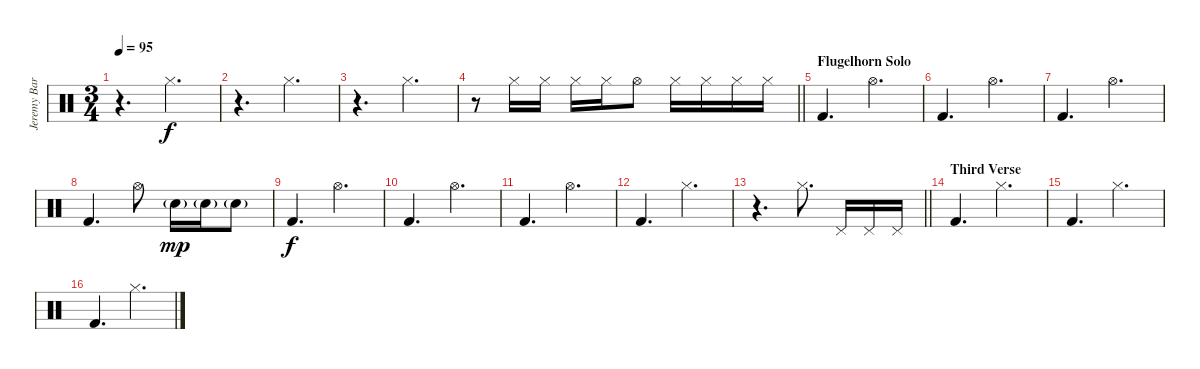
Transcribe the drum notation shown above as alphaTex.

\track ("Jeremy Barnes - Drums" "Jeremy Bar") {instrument percussion}
\staff {score}
\articulation defaults
\ts (3 4)
\tempo 95
\clef neutral
\ks c
r.4{d dy f} "Hi-Hat (closed)".4{d} |
r.4{d} "Hi-Hat (closed)".4{d} |
r.4{d} "Hi-Hat (closed)".4{d} |
\barLineRight lightlight
r.8 "Hi-Hat (closed)".16 "Hi-Hat (closed)".16 "Hi-Hat (closed)".16 "Hi-Hat (closed)".16 "Hi-Hat (open)".8 "Hi-Hat (closed)".16 "Hi-Hat (closed)".16 "Hi-Hat (closed)".16 "Hi-Hat (closed)".16 |
\section ("" "Flugelhorn Solo")
"Kick (hit) 2".4{d} "Hi-Hat (open)".4{d} |
"Kick (hit) 2".4{d} "Hi-Hat (open)".4{d} |
"Kick (hit) 2".4{d} "Hi-Hat (open)".4{d} |
"Kick (hit) 2".4{d} "Hi-Hat (open)".8 "Electric Snare (hit)"{g}.16{dy mp} "Electric Snare (hit)"{g}.16 "Electric Snare (hit)"{g}.8 |
"Kick (hit) 2".4{d dy f} "Hi-Hat (open)".4{d} |
"Kick (hit) 2".4{d} "Hi-Hat (open)".4{d} |
"Kick (hit) 2".4{d} "Hi-Hat (open)".4{d} |
"Kick (hit) 2".4{d} "Hi-Hat (closed)".4{d} |
\barLineRight lightlight
r.4{d} "Hi-Hat (closed)".8{d} "Pedal Hi-Hat (hit)".16 "Pedal Hi-Hat (hit)".16 "Pedal Hi-Hat (hit)".16 |
\section ("" "Third Verse")
"Kick (hit) 2".4{d} "Hi-Hat (closed)".4{d} |
"Kick (hit) 2".4{d} "Hi-Hat (closed)".4{d} |
"Kick (hit) 2".4{d} "Hi-Hat (closed)".4{d}
